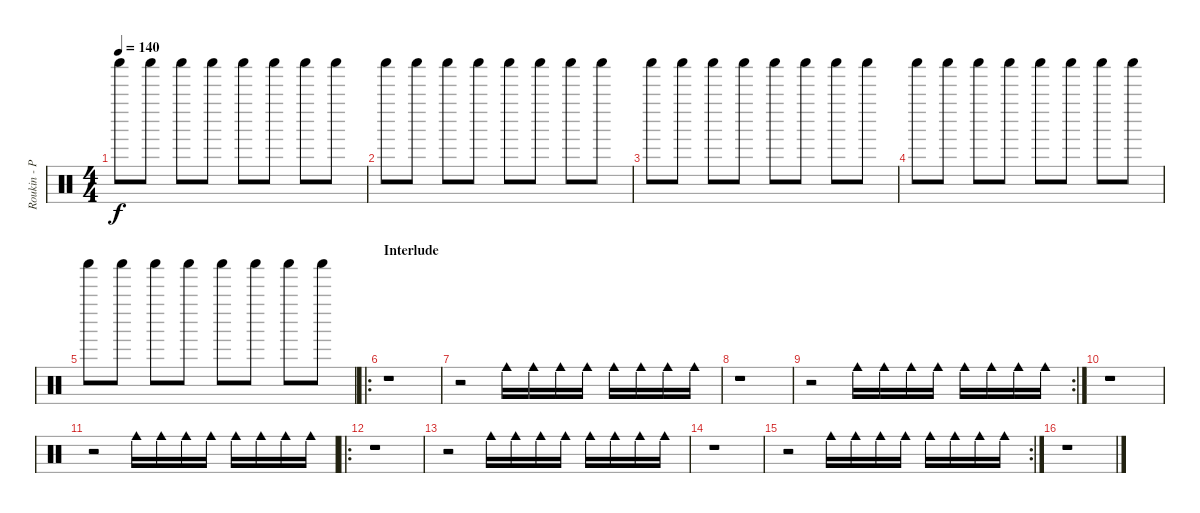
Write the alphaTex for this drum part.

\track ("Roukin - Percus" "Roukin - P") {instrument percussion}
\staff {score}
\articulation defaults
\ts (4 4)
\tempo 140
\clef neutral
\ks c "Shaker (hit)".8{dy f} "Shaker (hit)".8 "Shaker (hit)".8 "Shaker (hit)".8 "Shaker (hit)".8 "Shaker (hit)".8 "Shaker (hit)".8 "Shaker (hit)".8
|
"Shaker (hit)".8 "Shaker (hit)".8 "Shaker (hit)".8 "Shaker (hit)".8 "Shaker (hit)".8 "Shaker (hit)".8 "Shaker (hit)".8 "Shaker (hit)".8 |
"Shaker (hit)".8 "Shaker (hit)".8 "Shaker (hit)".8 "Shaker (hit)".8 "Shaker (hit)".8 "Shaker (hit)".8 "Shaker (hit)".8 "Shaker (hit)".8 |
"Shaker (hit)".8 "Shaker (hit)".8 "Shaker (hit)".8 "Shaker (hit)".8 "Shaker (hit)".8 "Shaker (hit)".8 "Shaker (hit)".8 "Shaker (hit)".8 |
"Shaker (hit)".8 "Shaker (hit)".8 "Shaker (hit)".8 "Shaker (hit)".8 "Shaker (hit)".8 "Shaker (hit)".8 "Shaker (hit)".8 "Shaker (hit)".8 |
\ro
\section ("" "Interlude")
r.1 |
r.2 "Cowbell medium (hit)".16 "Cowbell medium (hit)".16 "Cowbell medium (hit)".16 "Cowbell medium (hit)".16 "Cowbell medium (hit)".16 "Cowbell medium (hit)".16 "Cowbell medium (hit)".16 "Cowbell medium (hit)".16 |
r.1 |
\rc 2
r.2 "Cowbell medium (hit)".16 "Cowbell medium (hit)".16 "Cowbell medium (hit)".16 "Cowbell medium (hit)".16 "Cowbell medium (hit)".16 "Cowbell medium (hit)".16 "Cowbell medium (hit)".16 "Cowbell medium (hit)".16 |
r.1 |
r.2 "Cowbell medium (hit)".16 "Cowbell medium (hit)".16 "Cowbell medium (hit)".16 "Cowbell medium (hit)".16 "Cowbell medium (hit)".16 "Cowbell medium (hit)".16 "Cowbell medium (hit)".16 "Cowbell medium (hit)".16 |
\ro
r.1 |
r.2 "Cowbell medium (hit)".16 "Cowbell medium (hit)".16 "Cowbell medium (hit)".16 "Cowbell medium (hit)".16 "Cowbell medium (hit)".16 "Cowbell medium (hit)".16 "Cowbell medium (hit)".16 "Cowbell medium (hit)".16 |
r.1 |
\rc 2
r.2 "Cowbell medium (hit)".16 "Cowbell medium (hit)".16 "Cowbell medium (hit)".16 "Cowbell medium (hit)".16 "Cowbell medium (hit)".16 "Cowbell medium (hit)".16 "Cowbell medium (hit)".16 "Cowbell medium (hit)".16 |
r.1
